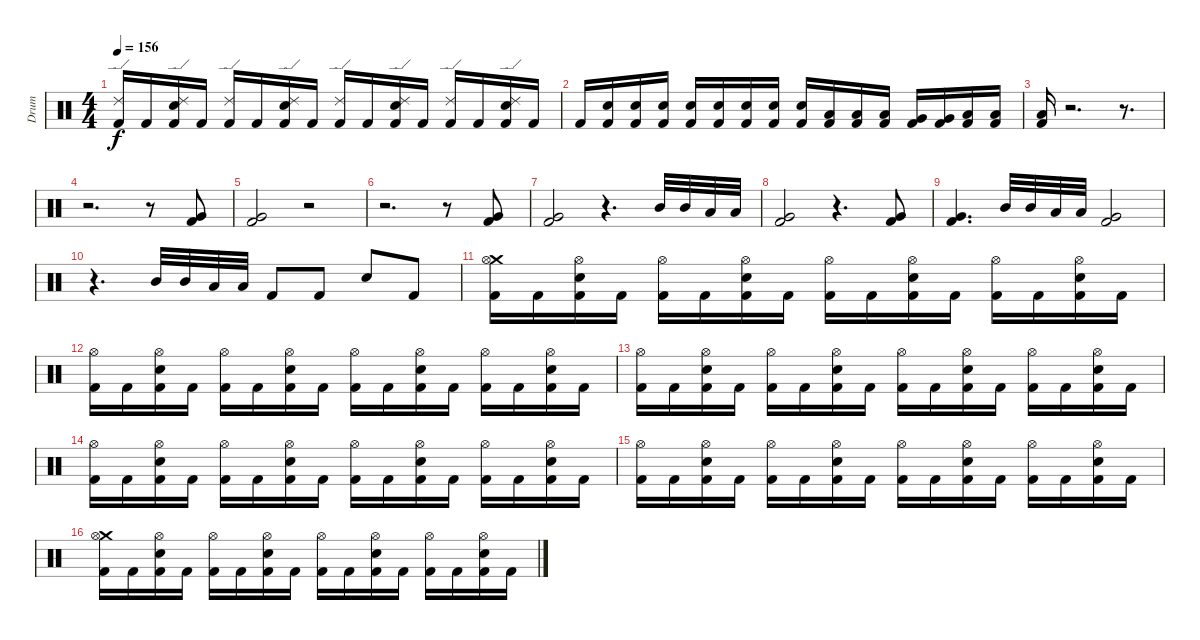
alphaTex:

\track (" Drum" " Drum") {instrument percussion}
\staff {score}
\articulation defaults
\ts (4 4)
\tempo 156
\clef neutral
\ks c
("Ride (edge) 2" "Kick (hit) 2").16{dy f} "Kick (hit) 2".16 ("Snare (hit) 2" "Ride (edge) 2" "Kick (hit) 2").16 "Kick (hit) 2".16 ("Ride (edge) 2" "Kick (hit) 2").16 "Kick (hit) 2".16 ("Snare (hit) 2" "Ride (edge) 2" "Kick (hit) 2").16 "Kick (hit) 2".16 ("Ride (edge) 2" "Kick (hit) 2").16 "Kick (hit) 2".16 ("Snare (hit) 2" "Ride (edge) 2" "Kick (hit) 2").16 "Kick (hit) 2".16 ("Ride (edge) 2" "Kick (hit) 2").16 "Kick (hit) 2".16 ("Snare (hit) 2" "Ride (edge) 2" "Kick (hit) 2").16 "Kick (hit) 2".16 |
"Kick (hit) 2".16 ("Snare (hit) 2" "Kick (hit) 2").16 ("Snare (hit) 2" "Kick (hit) 2").16 ("Snare (hit) 2" "Kick (hit) 2").16 ("Snare (hit) 2" "Kick (hit) 2").16 ("Snare (hit) 2" "Kick (hit) 2").16 ("Snare (hit) 2" "Kick (hit) 2").16 ("Snare (hit) 2" "Kick (hit) 2").16 ("Snare (hit) 2" "Kick (hit) 2").16 ("Low Tom (hit)" "Kick (hit) 2").16 ("Low Tom (hit)" "Kick (hit) 2").16 ("Low Tom (hit)" "Kick (hit) 2").16 ("Very Low Tom (hit)" "Kick (hit) 2").16 ("Very Low Tom (hit)" "Kick (hit) 2").16 ("Low Floor Tom (hit)" "Kick (hit) 2").16 ("Low Floor Tom (hit)" "Kick (hit) 2").16 |
("Low Floor Tom (hit)" "Kick (hit) 2").16 r.2{d} r.8{d} |
r.2{d} r.8 ("Very Low Tom (hit)" "Kick (hit) 2").8 |
("Very Low Tom (hit)" "Kick (hit) 2").2 r.2 |
r.2{d} r.8 ("Very Low Tom (hit)" "Kick (hit) 2").8 |
("Very Low Tom (hit)" "Kick (hit) 2").2 r.4{d} "Mid Tom (hit)".32 "Mid Tom (hit)".32 "Low Tom (hit)".32 "Low Tom (hit)".32 |
("Very Low Tom (hit)" "Kick (hit) 2").2 r.4{d} ("Very Low Tom (hit)" "Kick (hit) 2").8 |
("Kick (hit) 2" "Very Low Tom (hit)").4{d} "Mid Tom (hit)".32 "Mid Tom (hit)".32 "Low Tom (hit)".32 "Low Tom (hit)".32 ("Very Low Tom (hit)" "Kick (hit) 2").2 |
r.4{d} "Mid Tom (hit)".32 "Mid Tom (hit)".32 "Low Tom (hit)".32 "Low Tom (hit)".32 "Kick (hit) 2".8 "Kick (hit) 2".8 "Electric Snare (hit)".8 "Kick (hit) 2".8 |
("Crash medium (hit)" "Hi-Hat (open)" "Kick (hit) 2").16 "Kick (hit) 2".16 ("Snare (hit) 2" "Hi-Hat (open)" "Kick (hit) 2").16 "Kick (hit) 2".16 ("Hi-Hat (open)" "Kick (hit) 2").16 "Kick (hit) 2".16 ("Snare (hit) 2" "Hi-Hat (open)" "Kick (hit) 2").16 "Kick (hit) 2".16 ("Hi-Hat (open)" "Kick (hit) 2").16 "Kick (hit) 2".16 ("Snare (hit) 2" "Hi-Hat (open)" "Kick (hit) 2").16 "Kick (hit) 2".16 ("Hi-Hat (open)" "Kick (hit) 2").16 "Kick (hit) 2".16 ("Snare (hit) 2" "Hi-Hat (open)" "Kick (hit) 2").16 "Kick (hit) 2".16 |
("Hi-Hat (open)" "Kick (hit) 2").16 "Kick (hit) 2".16 ("Snare (hit) 2" "Hi-Hat (open)" "Kick (hit) 2").16 "Kick (hit) 2".16 ("Hi-Hat (open)" "Kick (hit) 2").16 "Kick (hit) 2".16 ("Snare (hit) 2" "Hi-Hat (open)" "Kick (hit) 2").16 "Kick (hit) 2".16 ("Hi-Hat (open)" "Kick (hit) 2").16 "Kick (hit) 2".16 ("Snare (hit) 2" "Hi-Hat (open)" "Kick (hit) 2").16 "Kick (hit) 2".16 ("Hi-Hat (open)" "Kick (hit) 2").16 "Kick (hit) 2".16 ("Snare (hit) 2" "Hi-Hat (open)" "Kick (hit) 2").16 "Kick (hit) 2".16 |
("Hi-Hat (open)" "Kick (hit) 2").16 "Kick (hit) 2".16 ("Snare (hit) 2" "Hi-Hat (open)" "Kick (hit) 2").16 "Kick (hit) 2".16 ("Hi-Hat (open)" "Kick (hit) 2").16 "Kick (hit) 2".16 ("Snare (hit) 2" "Hi-Hat (open)" "Kick (hit) 2").16 "Kick (hit) 2".16 ("Hi-Hat (open)" "Kick (hit) 2").16 "Kick (hit) 2".16 ("Snare (hit) 2" "Hi-Hat (open)" "Kick (hit) 2").16 "Kick (hit) 2".16 ("Hi-Hat (open)" "Kick (hit) 2").16 "Kick (hit) 2".16 ("Snare (hit) 2" "Hi-Hat (open)" "Kick (hit) 2").16 "Kick (hit) 2".16 |
("Hi-Hat (open)" "Kick (hit) 2").16 "Kick (hit) 2".16 ("Snare (hit) 2" "Hi-Hat (open)" "Kick (hit) 2").16 "Kick (hit) 2".16 ("Hi-Hat (open)" "Kick (hit) 2").16 "Kick (hit) 2".16 ("Snare (hit) 2" "Hi-Hat (open)" "Kick (hit) 2").16 "Kick (hit) 2".16 ("Hi-Hat (open)" "Kick (hit) 2").16 "Kick (hit) 2".16 ("Snare (hit) 2" "Hi-Hat (open)" "Kick (hit) 2").16 "Kick (hit) 2".16 ("Hi-Hat (open)" "Kick (hit) 2").16 "Kick (hit) 2".16 ("Snare (hit) 2" "Hi-Hat (open)" "Kick (hit) 2").16 "Kick (hit) 2".16 |
("Hi-Hat (open)" "Kick (hit) 2").16 "Kick (hit) 2".16 ("Snare (hit) 2" "Hi-Hat (open)" "Kick (hit) 2").16 "Kick (hit) 2".16 ("Hi-Hat (open)" "Kick (hit) 2").16 "Kick (hit) 2".16 ("Snare (hit) 2" "Hi-Hat (open)" "Kick (hit) 2").16 "Kick (hit) 2".16 ("Hi-Hat (open)" "Kick (hit) 2").16 "Kick (hit) 2".16 ("Snare (hit) 2" "Hi-Hat (open)" "Kick (hit) 2").16 "Kick (hit) 2".16 ("Hi-Hat (open)" "Kick (hit) 2").16 "Kick (hit) 2".16 ("Snare (hit) 2" "Hi-Hat (open)" "Kick (hit) 2").16 "Kick (hit) 2".16 |
("Crash medium (hit)" "Hi-Hat (open)" "Kick (hit) 2").16 "Kick (hit) 2".16 ("Snare (hit) 2" "Hi-Hat (open)" "Kick (hit) 2").16 "Kick (hit) 2".16 ("Hi-Hat (open)" "Kick (hit) 2").16 "Kick (hit) 2".16 ("Snare (hit) 2" "Hi-Hat (open)" "Kick (hit) 2").16 "Kick (hit) 2".16 ("Hi-Hat (open)" "Kick (hit) 2").16 "Kick (hit) 2".16 ("Snare (hit) 2" "Hi-Hat (open)" "Kick (hit) 2").16 "Kick (hit) 2".16 ("Hi-Hat (open)" "Kick (hit) 2").16 "Kick (hit) 2".16 ("Snare (hit) 2" "Hi-Hat (open)" "Kick (hit) 2").16 "Kick (hit) 2".16
